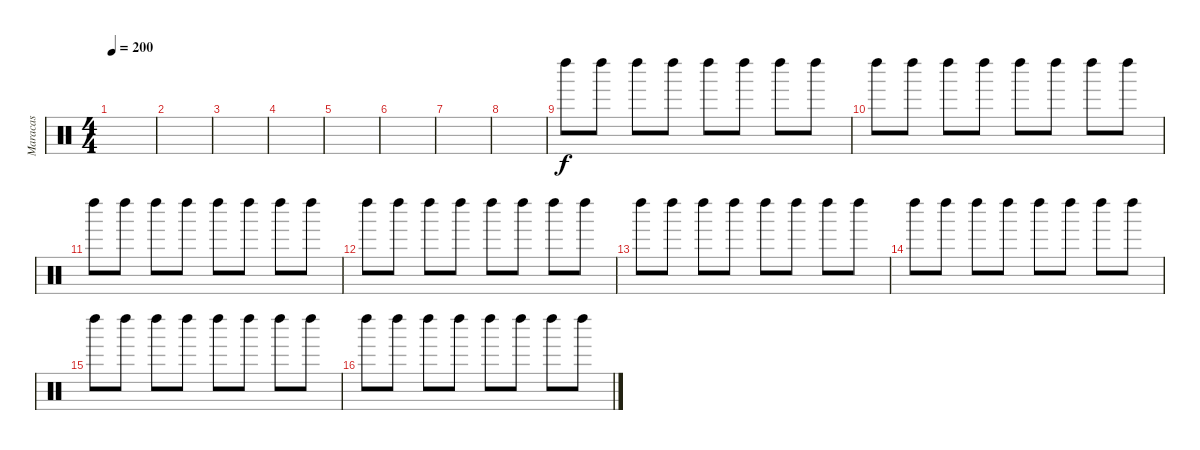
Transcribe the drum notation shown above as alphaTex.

\track ("Maracas" "Maracas") {instrument percussion}
\staff {score}
\articulation defaults
\ts (4 4)
\tempo 200
\clef neutral
\ks c
|
|
|
|
|
|
|
|
"Left Maraca (hit)".8 "Left Maraca (hit)".8 "Left Maraca (hit)".8 "Left Maraca (hit)".8 "Left Maraca (hit)".8 "Left Maraca (hit)".8 "Left Maraca (hit)".8 "Left Maraca (hit)".8 |
"Left Maraca (hit)".8 "Left Maraca (hit)".8 "Left Maraca (hit)".8 "Left Maraca (hit)".8 "Left Maraca (hit)".8 "Left Maraca (hit)".8 "Left Maraca (hit)".8 "Left Maraca (hit)".8 |
"Left Maraca (hit)".8 "Left Maraca (hit)".8 "Left Maraca (hit)".8 "Left Maraca (hit)".8 "Left Maraca (hit)".8 "Left Maraca (hit)".8 "Left Maraca (hit)".8 "Left Maraca (hit)".8 |
"Left Maraca (hit)".8 "Left Maraca (hit)".8 "Left Maraca (hit)".8 "Left Maraca (hit)".8 "Left Maraca (hit)".8 "Left Maraca (hit)".8 "Left Maraca (hit)".8 "Left Maraca (hit)".8 |
"Left Maraca (hit)".8 "Left Maraca (hit)".8 "Left Maraca (hit)".8 "Left Maraca (hit)".8 "Left Maraca (hit)".8 "Left Maraca (hit)".8 "Left Maraca (hit)".8 "Left Maraca (hit)".8 |
"Left Maraca (hit)".8 "Left Maraca (hit)".8 "Left Maraca (hit)".8 "Left Maraca (hit)".8 "Left Maraca (hit)".8 "Left Maraca (hit)".8 "Left Maraca (hit)".8 "Left Maraca (hit)".8 |
"Left Maraca (hit)".8 "Left Maraca (hit)".8 "Left Maraca (hit)".8 "Left Maraca (hit)".8 "Left Maraca (hit)".8 "Left Maraca (hit)".8 "Left Maraca (hit)".8 "Left Maraca (hit)".8 |
"Left Maraca (hit)".8 "Left Maraca (hit)".8 "Left Maraca (hit)".8 "Left Maraca (hit)".8 "Left Maraca (hit)".8 "Left Maraca (hit)".8 "Left Maraca (hit)".8 "Left Maraca (hit)".8
